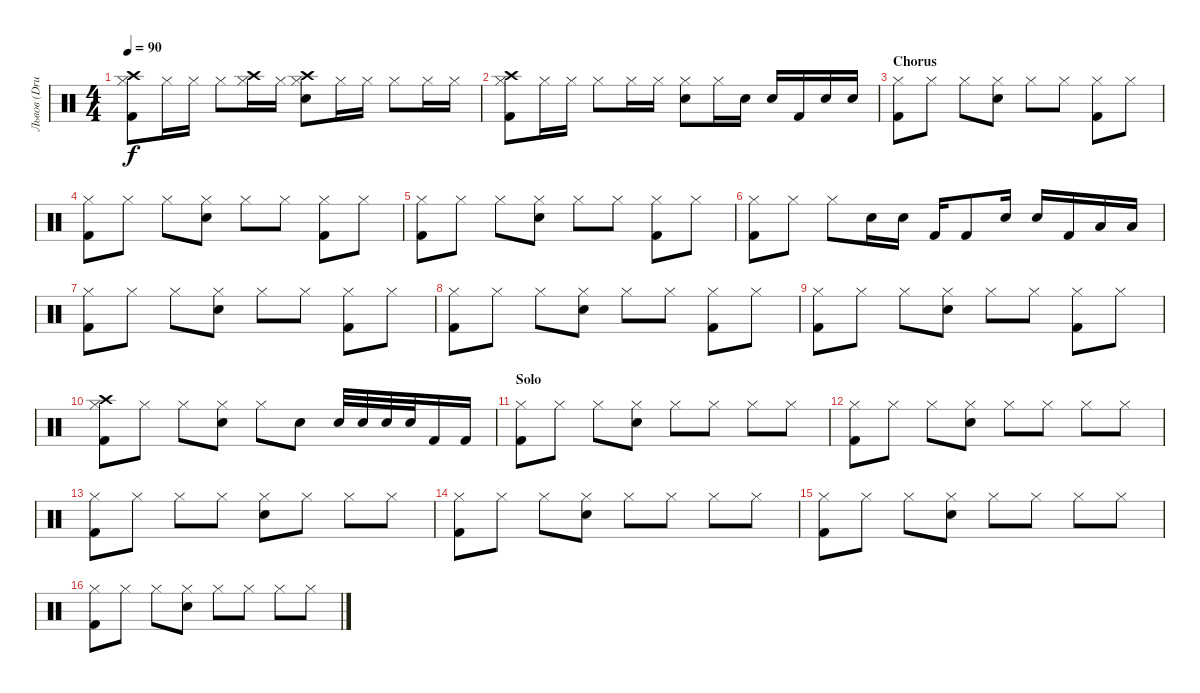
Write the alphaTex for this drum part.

\track ("Львов (Drums)" "Львов (Dru") {instrument percussion}
\staff {score}
\articulation defaults
\ts (4 4)
\tempo 90
\clef neutral
\ks c
("Kick (hit) 2" "Crash high (hit)" "Hi-Hat (closed)").8{dy f} "Hi-Hat (closed)".16 "Hi-Hat (closed)".16 "Hi-Hat (closed)".8 ("Crash high (hit)" "Hi-Hat (closed)").16 "Hi-Hat (closed)".16 ("Electric Snare (hit)" "Crash high (hit)" "Hi-Hat (closed)").8 "Hi-Hat (closed)".16 "Hi-Hat (closed)".16 "Hi-Hat (closed)".8 "Hi-Hat (closed)".16 "Hi-Hat (closed)".16 |
("Kick (hit) 2" "Crash high (hit)" "Hi-Hat (closed)").8 "Hi-Hat (closed)".16 "Hi-Hat (closed)".16 "Hi-Hat (closed)".8 "Hi-Hat (closed)".16 "Hi-Hat (closed)".16 ("Electric Snare (hit)" "Hi-Hat (closed)").8 "Hi-Hat (closed)".16 "Electric Snare (hit)".16 "Electric Snare (hit)".16 "Kick (hit) 2".16 "Electric Snare (hit)".16 "Electric Snare (hit)".16 |
\section ("" "Chorus")
("Kick (hit) 2" "Hi-Hat (closed)").8 "Hi-Hat (closed)".8 "Hi-Hat (closed)".8 ("Electric Snare (hit)" "Hi-Hat (closed)").8 "Hi-Hat (closed)".8 "Hi-Hat (closed)".8 ("Kick (hit) 2" "Hi-Hat (closed)").8 "Hi-Hat (closed)".8 |
("Kick (hit) 2" "Hi-Hat (closed)").8 "Hi-Hat (closed)".8 "Hi-Hat (closed)".8 ("Electric Snare (hit)" "Hi-Hat (closed)").8 "Hi-Hat (closed)".8 "Hi-Hat (closed)".8 ("Kick (hit) 2" "Hi-Hat (closed)").8 "Hi-Hat (closed)".8 |
("Kick (hit) 2" "Hi-Hat (closed)").8 "Hi-Hat (closed)".8 "Hi-Hat (closed)".8 ("Electric Snare (hit)" "Hi-Hat (closed)").8 "Hi-Hat (closed)".8 "Hi-Hat (closed)".8 ("Kick (hit) 2" "Hi-Hat (closed)").8 "Hi-Hat (closed)".8 |
("Kick (hit) 2" "Hi-Hat (closed)").8 "Hi-Hat (closed)".8 "Hi-Hat (closed)".8 "Electric Snare (hit)".16 "Electric Snare (hit)".16 "Kick (hit) 2".16 "Kick (hit) 2".8 "Electric Snare (hit)".16 "Electric Snare (hit)".16 "Kick (hit) 2".16 "Low Tom (hit)".16 "Low Tom (hit)".16 |
("Kick (hit) 2" "Hi-Hat (closed)").8 "Hi-Hat (closed)".8 "Hi-Hat (closed)".8 ("Electric Snare (hit)" "Hi-Hat (closed)").8 "Hi-Hat (closed)".8 "Hi-Hat (closed)".8 ("Kick (hit) 2" "Hi-Hat (closed)").8 "Hi-Hat (closed)".8 |
("Kick (hit) 2" "Hi-Hat (closed)").8 "Hi-Hat (closed)".8 "Hi-Hat (closed)".8 ("Electric Snare (hit)" "Hi-Hat (closed)").8 "Hi-Hat (closed)".8 "Hi-Hat (closed)".8 ("Kick (hit) 2" "Hi-Hat (closed)").8 "Hi-Hat (closed)".8 |
("Kick (hit) 2" "Hi-Hat (closed)").8 "Hi-Hat (closed)".8 "Hi-Hat (closed)".8 ("Electric Snare (hit)" "Hi-Hat (closed)").8 "Hi-Hat (closed)".8 "Hi-Hat (closed)".8 ("Kick (hit) 2" "Hi-Hat (closed)").8 "Hi-Hat (closed)".8 |
("Kick (hit) 2" "Crash high (hit)" "Hi-Hat (closed)").8 "Hi-Hat (closed)".8 "Hi-Hat (closed)".8 ("Electric Snare (hit)" "Hi-Hat (closed)").8 "Hi-Hat (closed)".8 "Electric Snare (hit)".8 "Electric Snare (hit)".32 "Electric Snare (hit)".32 "Electric Snare (hit)".32 "Electric Snare (hit)".32 "Kick (hit) 2".16 "Kick (hit) 2".16 |
\section ("" "Solo")
("Kick (hit) 2" "Hi-Hat (closed)").8 "Hi-Hat (closed)".8 "Hi-Hat (closed)".8 ("Electric Snare (hit)" "Hi-Hat (closed)").8 "Hi-Hat (closed)".8 "Hi-Hat (closed)".8 "Hi-Hat (closed)".8 "Hi-Hat (closed)".8 |
("Kick (hit) 2" "Hi-Hat (closed)").8 "Hi-Hat (closed)".8 "Hi-Hat (closed)".8 ("Electric Snare (hit)" "Hi-Hat (closed)").8 "Hi-Hat (closed)".8 "Hi-Hat (closed)".8 "Hi-Hat (closed)".8 "Hi-Hat (closed)".8 |
("Kick (hit) 2" "Hi-Hat (closed)").8 "Hi-Hat (closed)".8 "Hi-Hat (closed)".8 "Hi-Hat (closed)".8 ("Electric Snare (hit)" "Hi-Hat (closed)").8 "Hi-Hat (closed)".8 "Hi-Hat (closed)".8 "Hi-Hat (closed)".8 |
("Kick (hit) 2" "Hi-Hat (closed)").8 "Hi-Hat (closed)".8 "Hi-Hat (closed)".8 ("Electric Snare (hit)" "Hi-Hat (closed)").8 "Hi-Hat (closed)".8 "Hi-Hat (closed)".8 "Hi-Hat (closed)".8 "Hi-Hat (closed)".8 |
("Kick (hit) 2" "Hi-Hat (closed)").8 "Hi-Hat (closed)".8 "Hi-Hat (closed)".8 ("Electric Snare (hit)" "Hi-Hat (closed)").8 "Hi-Hat (closed)".8 "Hi-Hat (closed)".8 "Hi-Hat (closed)".8 "Hi-Hat (closed)".8 |
("Kick (hit) 2" "Hi-Hat (closed)").8 "Hi-Hat (closed)".8 "Hi-Hat (closed)".8 ("Electric Snare (hit)" "Hi-Hat (closed)").8 "Hi-Hat (closed)".8 "Hi-Hat (closed)".8 "Hi-Hat (closed)".8 "Hi-Hat (closed)".8
